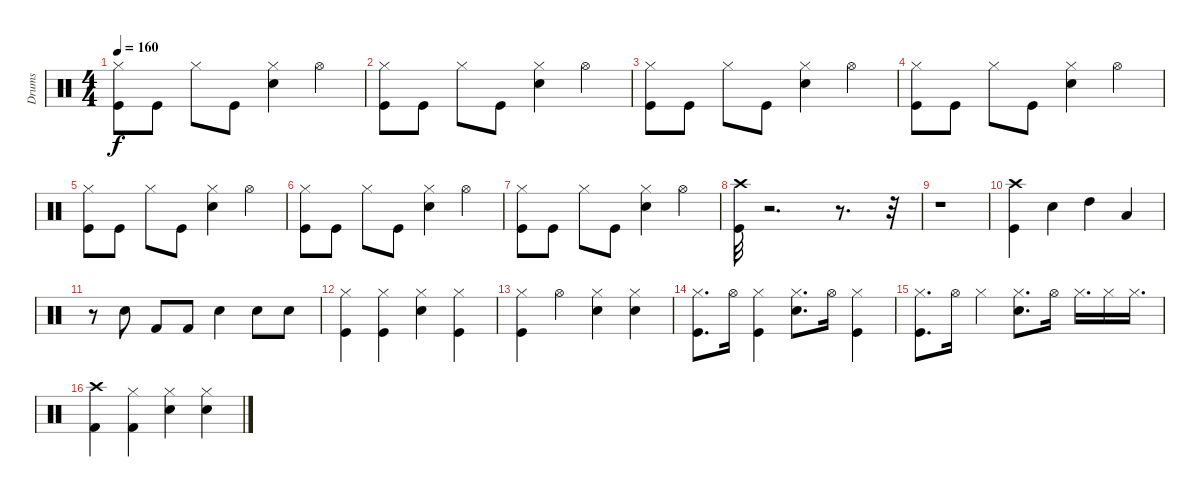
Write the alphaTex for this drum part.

\track ("Drums" "Drums") {instrument percussion}
\staff {score}
\articulation defaults
\ts (4 4)
\tempo 160
\clef neutral
\ks c
("Hi-Hat (closed)" "Kick (hit)").8{dy f} "Kick (hit)".8 "Hi-Hat (closed)".8 "Kick (hit)".8 ("Hi-Hat (closed)" "Snare (hit) 2").4 "Hi-Hat (open)".4 |
("Hi-Hat (closed)" "Kick (hit)").8 "Kick (hit)".8 "Hi-Hat (closed)".8 "Kick (hit)".8 ("Hi-Hat (closed)" "Snare (hit) 2").4 "Hi-Hat (open)".4 |
("Hi-Hat (closed)" "Kick (hit)").8 "Kick (hit)".8 "Hi-Hat (closed)".8 "Kick (hit)".8 ("Hi-Hat (closed)" "Snare (hit) 2").4 "Hi-Hat (open)".4 |
("Hi-Hat (closed)" "Kick (hit)").8 "Kick (hit)".8 "Hi-Hat (closed)".8 "Kick (hit)".8 ("Hi-Hat (closed)" "Snare (hit) 2").4 "Hi-Hat (open)".4 |
("Hi-Hat (closed)" "Kick (hit)").8 "Kick (hit)".8 "Hi-Hat (closed)".8 "Kick (hit)".8 ("Hi-Hat (closed)" "Snare (hit) 2").4 "Hi-Hat (open)".4 |
("Hi-Hat (closed)" "Kick (hit)").8 "Kick (hit)".8 "Hi-Hat (closed)".8 "Kick (hit)".8 ("Hi-Hat (closed)" "Snare (hit) 2").4 "Hi-Hat (open)".4 |
("Hi-Hat (closed)" "Kick (hit)").8 "Kick (hit)".8 "Hi-Hat (closed)".8 "Kick (hit)".8 ("Hi-Hat (closed)" "Snare (hit) 2").4 "Hi-Hat (open)".4 |
("Crash high (hit)" "Kick (hit)").32 r.2{d} r.8{d} r.32 |
r.1 |
("Crash high (hit)" "Kick (hit)").4 "Snare (hit) 2".4 "High Tom (hit)".4 "Low Tom (hit)".4 |
r.8 "Snare (hit) 2".8 "Kick (hit) 2".8 "Kick (hit) 2".8 "Snare (hit) 2".4 "Snare (hit) 2".8 "Snare (hit) 2".8 |
("Kick (hit)" "Hi-Hat (closed)").4 ("Kick (hit)" "Hi-Hat (closed)").4 ("Snare (hit) 2" "Hi-Hat (closed)").4 ("Kick (hit)" "Hi-Hat (closed)").4 |
("Kick (hit)" "Hi-Hat (closed)").4 "Hi-Hat (open)".4 ("Snare (hit) 2" "Hi-Hat (closed)").4 ("Snare (hit) 2" "Hi-Hat (closed)").4 |
("Kick (hit)" "Hi-Hat (closed)").8{d} "Hi-Hat (open)".16 ("Kick (hit)" "Hi-Hat (closed)").4 ("Snare (hit) 2" "Hi-Hat (closed)").8{d} "Hi-Hat (open)".16 ("Kick (hit)" "Hi-Hat (closed)").4 |
("Kick (hit)" "Hi-Hat (closed)").8{d} "Hi-Hat (open)".16 "Hi-Hat (closed)".4 ("Snare (hit) 2" "Hi-Hat (closed)").8{d} "Hi-Hat (open)".16 "Hi-Hat (closed)".16{d} "Hi-Hat (closed)".16 "Hi-Hat (closed)".16{d} |
("Kick (hit) 2" "Crash high (hit)").4 ("Hi-Hat (closed)" "Kick (hit) 2").4 ("Hi-Hat (closed)" "Snare (hit) 2").4 ("Hi-Hat (closed)" "Snare (hit) 2").4
